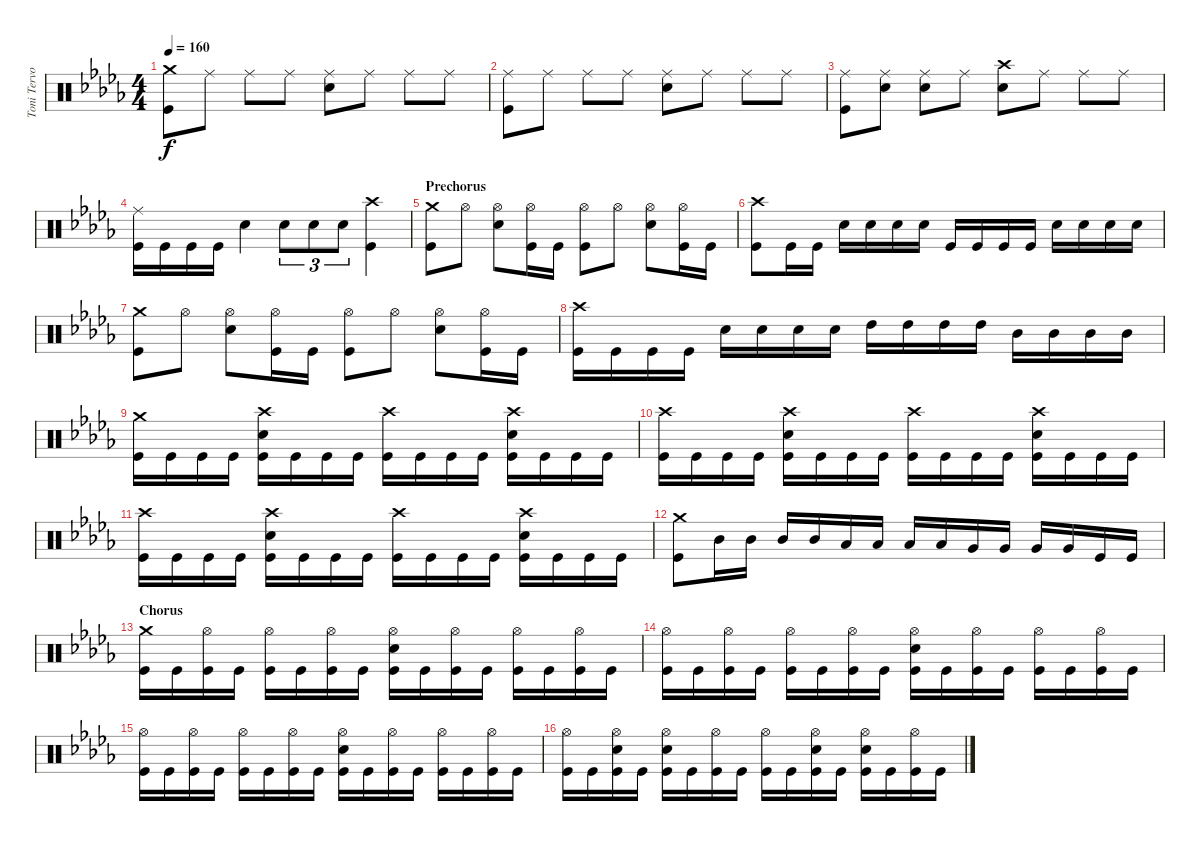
\track ("Toni Tervo (drums)" "Toni Tervo") {instrument percussion}
\staff {score}
\articulation defaults
\ts (4 4)
\tempo 160
\clef neutral
\ks bbminor
("Crash medium (hit)" "Kick (hit)").8{dy f} "Ride (middle)".8 "Ride (middle)".8 "Ride (middle)".8 ("Ride (middle)" "Snare (hit) 2").8 "Ride (middle)".8 "Ride (middle)".8 "Ride (middle)".8 |
("Kick (hit)" "Ride (middle)").8 "Ride (middle)".8 "Ride (middle)".8 "Ride (middle)".8 ("Ride (middle)" "Snare (hit) 2").8 "Ride (middle)".8 "Ride (middle)".8 "Ride (middle)".8 |
("Kick (hit)" "Ride (middle)").8 ("Ride (middle)" "Snare (hit) 2").8 ("Ride (middle)" "Snare (hit) 2").8 "Ride (middle)".8 ("Snare (hit) 2" "Crash high (hit)").8 "Ride (middle)".8 "Ride (middle)".8 "Ride (middle)".8 |
("Kick (hit)" "Ride (middle)").16 "Kick (hit)".16 "Kick (hit)".16 "Kick (hit)".16 "Snare (hit) 2".4 "Snare (hit) 2".8{tu (3 2)} "Snare (hit) 2".8{tu (3 2)} "Snare (hit) 2".8{tu (3 2)} ("Kick (hit)" "Crash high (hit)").4 |
\section ("" "Prechorus")
("Kick (hit)" "Crash medium (hit)").8 "Hi-Hat (open)".8 ("Hi-Hat (open)" "Snare (hit) 2").8 ("Hi-Hat (open)" "Kick (hit)").16 "Kick (hit)".16 ("Kick (hit)" "Hi-Hat (open)").8 "Hi-Hat (open)".8 ("Hi-Hat (open)" "Snare (hit) 2").8 ("Hi-Hat (open)" "Kick (hit)").16 "Kick (hit)".16 |
("Kick (hit)" "Crash high (hit)").8 "Kick (hit)".16 "Kick (hit)".16 "Snare (hit) 2".16 "Snare (hit) 2".16 "Snare (hit) 2".16 "Snare (hit) 2".16 "Kick (hit)".16 "Kick (hit)".16 "Kick (hit)".16 "Kick (hit)".16 "Snare (hit) 2".16 "Snare (hit) 2".16 "Snare (hit) 2".16 "Snare (hit) 2".16 |
("Kick (hit)" "Crash medium (hit)").8 "Hi-Hat (open)".8 ("Hi-Hat (open)" "Snare (hit) 2").8 ("Hi-Hat (open)" "Kick (hit)").16 "Kick (hit)".16 ("Kick (hit)" "Hi-Hat (open)").8 "Hi-Hat (open)".8 ("Hi-Hat (open)" "Snare (hit) 2").8 ("Hi-Hat (open)" "Kick (hit)").16 "Kick (hit)".16 |
("Kick (hit)" "Crash high (hit)").16 "Kick (hit)".16 "Kick (hit)".16 "Kick (hit)".16 "Snare (hit) 2".16 "Snare (hit) 2".16 "Snare (hit) 2".16 "Snare (hit) 2".16 "High Tom (hit)".16 "High Tom (hit)".16 "High Tom (hit)".16 "High Tom (hit)".16 "Mid Tom (hit)".16 "Mid Tom (hit)".16 "Mid Tom (hit)".16 "Mid Tom (hit)".16 |
("Kick (hit)" "Crash medium (hit)").16 "Kick (hit)".16 "Kick (hit)".16 "Kick (hit)".16 ("Kick (hit)" "Snare (hit) 2" "Crash high (hit)").16 "Kick (hit)".16 "Kick (hit)".16 "Kick (hit)".16 ("Kick (hit)" "Crash high (hit)").16 "Kick (hit)".16 "Kick (hit)".16 "Kick (hit)".16 ("Kick (hit)" "Snare (hit) 2" "Crash high (hit)").16 "Kick (hit)".16 "Kick (hit)".16 "Kick (hit)".16 |
("Kick (hit)" "Crash high (hit)").16 "Kick (hit)".16 "Kick (hit)".16 "Kick (hit)".16 ("Kick (hit)" "Snare (hit) 2" "Crash high (hit)").16 "Kick (hit)".16 "Kick (hit)".16 "Kick (hit)".16 ("Kick (hit)" "Crash high (hit)").16 "Kick (hit)".16 "Kick (hit)".16 "Kick (hit)".16 ("Kick (hit)" "Snare (hit) 2" "Crash high (hit)").16 "Kick (hit)".16 "Kick (hit)".16 "Kick (hit)".16 |
("Kick (hit)" "Crash high (hit)").16 "Kick (hit)".16 "Kick (hit)".16 "Kick (hit)".16 ("Kick (hit)" "Snare (hit) 2" "Crash high (hit)").16 "Kick (hit)".16 "Kick (hit)".16 "Kick (hit)".16 ("Kick (hit)" "Crash high (hit)").16 "Kick (hit)".16 "Kick (hit)".16 "Kick (hit)".16 ("Kick (hit)" "Snare (hit) 2" "Crash high (hit)").16 "Kick (hit)".16 "Kick (hit)".16 "Kick (hit)".16 |
("Kick (hit)" "Crash medium (hit)").8 "Mid Tom (hit)".16 "Mid Tom (hit)".16 "Mid Tom (hit)".16 "Mid Tom (hit)".16 "Low Tom (hit)".16 "Low Tom (hit)".16 "Low Tom (hit)".16 "Low Tom (hit)".16 "Very Low Tom (hit)".16 "Very Low Tom (hit)".16 "Very Low Tom (hit)".16 "Very Low Tom (hit)".16 "Kick (hit)".16 "Kick (hit)".16 |
\section ("" "Chorus")
("Kick (hit)" "Crash medium (hit)").16 "Kick (hit)".16 ("Hi-Hat (open)" "Kick (hit)").16 "Kick (hit)".16 ("Hi-Hat (open)" "Kick (hit)").16 "Kick (hit)".16 ("Hi-Hat (open)" "Kick (hit)").16 "Kick (hit)".16 ("Hi-Hat (open)" "Kick (hit)" "Snare (hit) 2").16 "Kick (hit)".16 ("Hi-Hat (open)" "Kick (hit)").16 "Kick (hit)".16 ("Hi-Hat (open)" "Kick (hit)").16 "Kick (hit)".16 ("Hi-Hat (open)" "Kick (hit)").16 "Kick (hit)".16 |
("Hi-Hat (open)" "Kick (hit)").16 "Kick (hit)".16 ("Hi-Hat (open)" "Kick (hit)").16 "Kick (hit)".16 ("Hi-Hat (open)" "Kick (hit)").16 "Kick (hit)".16 ("Hi-Hat (open)" "Kick (hit)").16 "Kick (hit)".16 ("Hi-Hat (open)" "Kick (hit)" "Snare (hit) 2").16 "Kick (hit)".16 ("Hi-Hat (open)" "Kick (hit)").16 "Kick (hit)".16 ("Hi-Hat (open)" "Kick (hit)").16 "Kick (hit)".16 ("Hi-Hat (open)" "Kick (hit)").16 "Kick (hit)".16 |
("Hi-Hat (open)" "Kick (hit)").16 "Kick (hit)".16 ("Hi-Hat (open)" "Kick (hit)").16 "Kick (hit)".16 ("Hi-Hat (open)" "Kick (hit)").16 "Kick (hit)".16 ("Hi-Hat (open)" "Kick (hit)").16 "Kick (hit)".16 ("Hi-Hat (open)" "Kick (hit)" "Snare (hit) 2").16 "Kick (hit)".16 ("Hi-Hat (open)" "Kick (hit)").16 "Kick (hit)".16 ("Hi-Hat (open)" "Kick (hit)").16 "Kick (hit)".16 ("Hi-Hat (open)" "Kick (hit)").16 "Kick (hit)".16 |
("Hi-Hat (open)" "Kick (hit)").16 "Kick (hit)".16 ("Hi-Hat (open)" "Kick (hit)" "Snare (hit) 2").16 "Kick (hit)".16 ("Hi-Hat (open)" "Kick (hit)" "Snare (hit) 2").16 "Kick (hit)".16 ("Hi-Hat (open)" "Kick (hit)").16 "Kick (hit)".16 ("Hi-Hat (open)" "Kick (hit)").16 "Kick (hit)".16 ("Hi-Hat (open)" "Kick (hit)" "Snare (hit) 2").16 "Kick (hit)".16 ("Hi-Hat (open)" "Kick (hit)" "Snare (hit) 2").16 "Kick (hit)".16 ("Hi-Hat (open)" "Kick (hit)").16 "Kick (hit)".16
